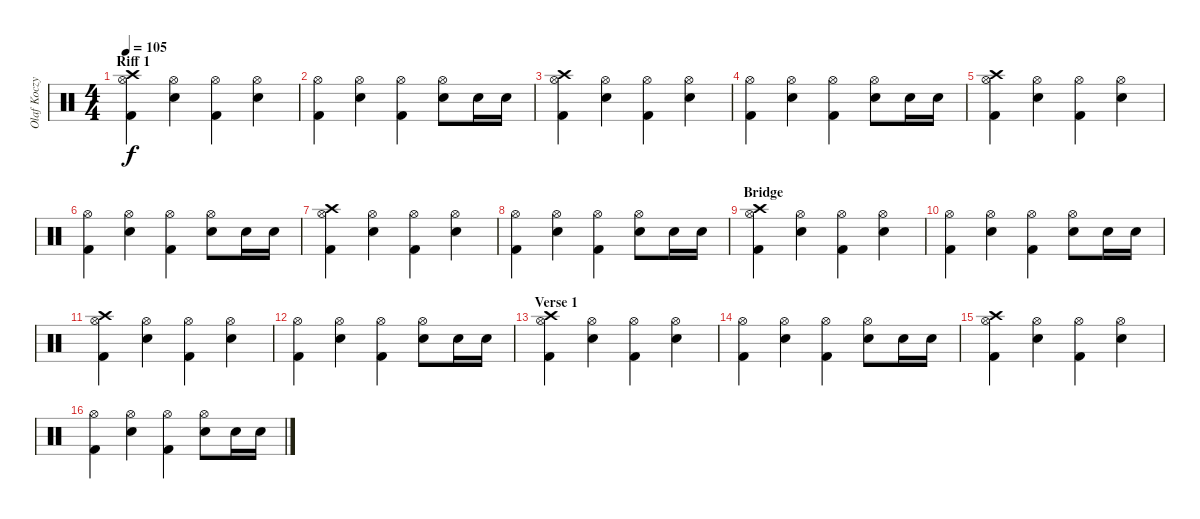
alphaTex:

\track ("Olaf Koczy (drums)" "Olaf Koczy") {instrument percussion}
\staff {score}
\articulation defaults
\ts (4 4)
\section ("" "Riff 1")
\tempo 105
\clef neutral
\ks c
("Crash high (hit)" "Hi-Hat (open)" "Kick (hit) 2").4{dy f} ("Hi-Hat (open)" "Snare (hit) 2").4 ("Hi-Hat (open)" "Kick (hit) 2").4 ("Hi-Hat (open)" "Snare (hit) 2").4 |
("Hi-Hat (open)" "Kick (hit) 2").4 ("Hi-Hat (open)" "Snare (hit) 2").4 ("Hi-Hat (open)" "Kick (hit) 2").4 ("Hi-Hat (open)" "Snare (hit) 2").8 "Snare (hit) 2".16 "Snare (hit) 2".16 |
("Crash high (hit)" "Hi-Hat (open)" "Kick (hit) 2").4 ("Hi-Hat (open)" "Snare (hit) 2").4 ("Hi-Hat (open)" "Kick (hit) 2").4 ("Hi-Hat (open)" "Snare (hit) 2").4 |
("Hi-Hat (open)" "Kick (hit) 2").4 ("Hi-Hat (open)" "Snare (hit) 2").4 ("Hi-Hat (open)" "Kick (hit) 2").4 ("Hi-Hat (open)" "Snare (hit) 2").8 "Snare (hit) 2".16 "Snare (hit) 2".16 |
("Crash high (hit)" "Hi-Hat (open)" "Kick (hit) 2").4 ("Hi-Hat (open)" "Snare (hit) 2").4 ("Hi-Hat (open)" "Kick (hit) 2").4 ("Hi-Hat (open)" "Snare (hit) 2").4 |
("Hi-Hat (open)" "Kick (hit) 2").4 ("Hi-Hat (open)" "Snare (hit) 2").4 ("Hi-Hat (open)" "Kick (hit) 2").4 ("Hi-Hat (open)" "Snare (hit) 2").8 "Snare (hit) 2".16 "Snare (hit) 2".16 |
("Crash high (hit)" "Hi-Hat (open)" "Kick (hit) 2").4 ("Hi-Hat (open)" "Snare (hit) 2").4 ("Hi-Hat (open)" "Kick (hit) 2").4 ("Hi-Hat (open)" "Snare (hit) 2").4 |
("Hi-Hat (open)" "Kick (hit) 2").4 ("Hi-Hat (open)" "Snare (hit) 2").4 ("Hi-Hat (open)" "Kick (hit) 2").4 ("Hi-Hat (open)" "Snare (hit) 2").8 "Snare (hit) 2".16 "Snare (hit) 2".16 |
\section ("" "Bridge")
("Crash high (hit)" "Hi-Hat (open)" "Kick (hit) 2").4 ("Hi-Hat (open)" "Snare (hit) 2").4 ("Hi-Hat (open)" "Kick (hit) 2").4 ("Hi-Hat (open)" "Snare (hit) 2").4 |
("Hi-Hat (open)" "Kick (hit) 2").4 ("Hi-Hat (open)" "Snare (hit) 2").4 ("Hi-Hat (open)" "Kick (hit) 2").4 ("Hi-Hat (open)" "Snare (hit) 2").8 "Snare (hit) 2".16 "Snare (hit) 2".16 |
("Crash high (hit)" "Hi-Hat (open)" "Kick (hit) 2").4 ("Hi-Hat (open)" "Snare (hit) 2").4 ("Hi-Hat (open)" "Kick (hit) 2").4 ("Hi-Hat (open)" "Snare (hit) 2").4 |
("Hi-Hat (open)" "Kick (hit) 2").4 ("Hi-Hat (open)" "Snare (hit) 2").4 ("Hi-Hat (open)" "Kick (hit) 2").4 ("Hi-Hat (open)" "Snare (hit) 2").8 "Snare (hit) 2".16 "Snare (hit) 2".16 |
\section ("" "Verse 1")
("Crash high (hit)" "Hi-Hat (open)" "Kick (hit) 2").4 ("Hi-Hat (open)" "Snare (hit) 2").4 ("Hi-Hat (open)" "Kick (hit) 2").4 ("Hi-Hat (open)" "Snare (hit) 2").4 |
("Hi-Hat (open)" "Kick (hit) 2").4 ("Hi-Hat (open)" "Snare (hit) 2").4 ("Hi-Hat (open)" "Kick (hit) 2").4 ("Hi-Hat (open)" "Snare (hit) 2").8 "Snare (hit) 2".16 "Snare (hit) 2".16 |
("Crash high (hit)" "Hi-Hat (open)" "Kick (hit) 2").4 ("Hi-Hat (open)" "Snare (hit) 2").4 ("Hi-Hat (open)" "Kick (hit) 2").4 ("Hi-Hat (open)" "Snare (hit) 2").4 |
("Hi-Hat (open)" "Kick (hit) 2").4 ("Hi-Hat (open)" "Snare (hit) 2").4 ("Hi-Hat (open)" "Kick (hit) 2").4 ("Hi-Hat (open)" "Snare (hit) 2").8 "Snare (hit) 2".16 "Snare (hit) 2".16
